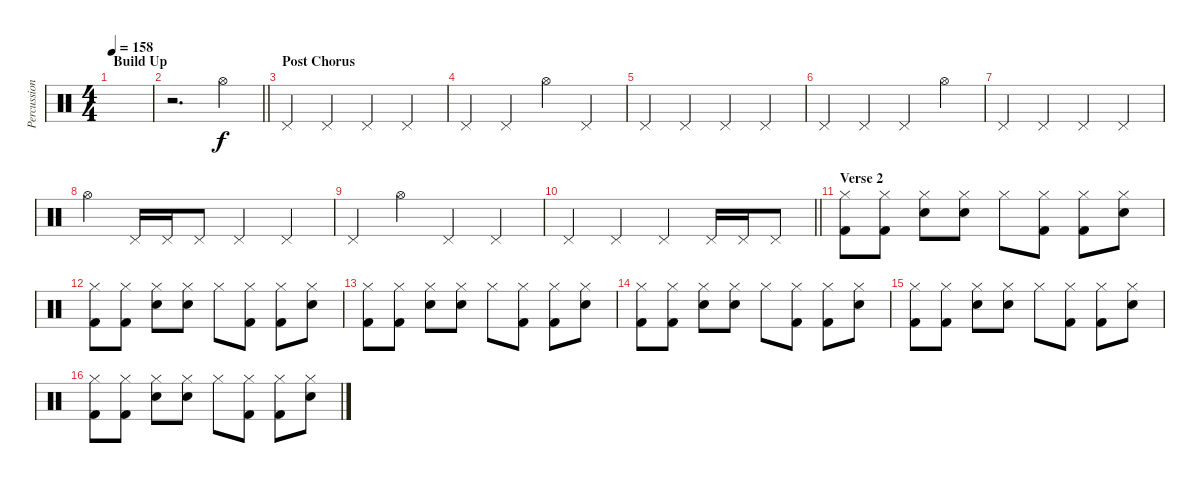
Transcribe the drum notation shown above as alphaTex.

\track ("Percussion" "Percussion") {instrument percussion}
\staff {score}
\articulation defaults
\ts (4 4)
\section ("" "Build Up")
\tempo 158
\clef neutral
\ks c
|
\barLineRight lightlight
r.2{d} "Hi-Hat (open)".4 |
\section ("" "Post Chorus")
"Pedal Hi-Hat (hit)".4 "Pedal Hi-Hat (hit)".4 "Pedal Hi-Hat (hit)".4 "Pedal Hi-Hat (hit)".4 |
"Pedal Hi-Hat (hit)".4 "Pedal Hi-Hat (hit)".4 "Hi-Hat (open)".4 "Pedal Hi-Hat (hit)".4 |
"Pedal Hi-Hat (hit)".4 "Pedal Hi-Hat (hit)".4 "Pedal Hi-Hat (hit)".4 "Pedal Hi-Hat (hit)".4 |
"Pedal Hi-Hat (hit)".4 "Pedal Hi-Hat (hit)".4 "Pedal Hi-Hat (hit)".4 "Hi-Hat (open)".4 |
"Pedal Hi-Hat (hit)".4 "Pedal Hi-Hat (hit)".4 "Pedal Hi-Hat (hit)".4 "Pedal Hi-Hat (hit)".4 |
"Hi-Hat (open)".4 "Pedal Hi-Hat (hit)".16 "Pedal Hi-Hat (hit)".16 "Pedal Hi-Hat (hit)".8 "Pedal Hi-Hat (hit)".4 "Pedal Hi-Hat (hit)".4 |
"Pedal Hi-Hat (hit)".4 "Hi-Hat (open)".4 "Pedal Hi-Hat (hit)".4 "Pedal Hi-Hat (hit)".4 |
\barLineRight lightlight "Pedal Hi-Hat (hit)".4 "Pedal Hi-Hat (hit)".4 "Pedal Hi-Hat (hit)".4 "Pedal Hi-Hat (hit)".16 "Pedal Hi-Hat (hit)".16 "Pedal Hi-Hat (hit)".8
|
\section ("" "Verse 2")
("Hi-Hat (closed)" "Kick (hit) 2").8 ("Hi-Hat (closed)" "Kick (hit) 2").8 ("Hi-Hat (closed)" "Electric Snare (hit)").8 ("Hi-Hat (closed)" "Electric Snare (hit)").8 "Hi-Hat (closed)".8 ("Hi-Hat (closed)" "Kick (hit) 2").8 ("Hi-Hat (closed)" "Kick (hit) 2").8 ("Hi-Hat (closed)" "Electric Snare (hit)").8 |
("Hi-Hat (closed)" "Kick (hit) 2").8 ("Hi-Hat (closed)" "Kick (hit) 2").8 ("Hi-Hat (closed)" "Electric Snare (hit)").8 ("Hi-Hat (closed)" "Electric Snare (hit)").8 "Hi-Hat (closed)".8 ("Hi-Hat (closed)" "Kick (hit) 2").8 ("Hi-Hat (closed)" "Kick (hit) 2").8 ("Hi-Hat (closed)" "Electric Snare (hit)").8 |
("Hi-Hat (closed)" "Kick (hit) 2").8 ("Hi-Hat (closed)" "Kick (hit) 2").8 ("Hi-Hat (closed)" "Electric Snare (hit)").8 ("Hi-Hat (closed)" "Electric Snare (hit)").8 "Hi-Hat (closed)".8 ("Hi-Hat (closed)" "Kick (hit) 2").8 ("Hi-Hat (closed)" "Kick (hit) 2").8 ("Hi-Hat (closed)" "Electric Snare (hit)").8 |
("Hi-Hat (closed)" "Kick (hit) 2").8 ("Hi-Hat (closed)" "Kick (hit) 2").8 ("Hi-Hat (closed)" "Electric Snare (hit)").8 ("Hi-Hat (closed)" "Electric Snare (hit)").8 "Hi-Hat (closed)".8 ("Hi-Hat (closed)" "Kick (hit) 2").8 ("Hi-Hat (closed)" "Kick (hit) 2").8 ("Hi-Hat (closed)" "Electric Snare (hit)").8 |
("Hi-Hat (closed)" "Kick (hit) 2").8 ("Hi-Hat (closed)" "Kick (hit) 2").8 ("Hi-Hat (closed)" "Electric Snare (hit)").8 ("Hi-Hat (closed)" "Electric Snare (hit)").8 "Hi-Hat (closed)".8 ("Hi-Hat (closed)" "Kick (hit) 2").8 ("Hi-Hat (closed)" "Kick (hit) 2").8 ("Hi-Hat (closed)" "Electric Snare (hit)").8 |
("Hi-Hat (closed)" "Kick (hit) 2").8 ("Hi-Hat (closed)" "Kick (hit) 2").8 ("Hi-Hat (closed)" "Electric Snare (hit)").8 ("Hi-Hat (closed)" "Electric Snare (hit)").8 "Hi-Hat (closed)".8 ("Hi-Hat (closed)" "Kick (hit) 2").8 ("Hi-Hat (closed)" "Kick (hit) 2").8 ("Hi-Hat (closed)" "Electric Snare (hit)").8
